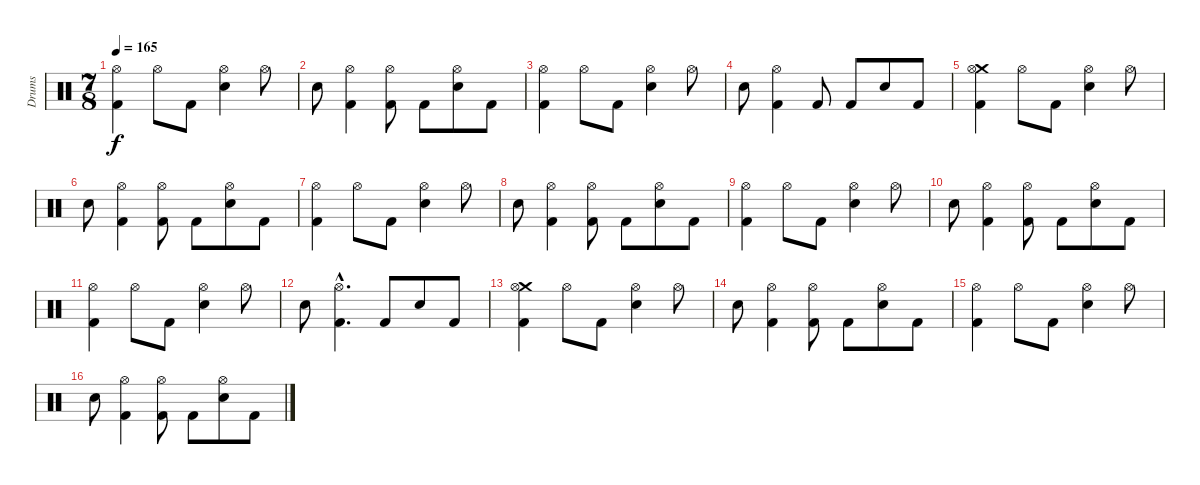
\track ("Drums" "Drums") {instrument percussion}
\staff {score}
\articulation defaults
\ts (7 8)
\tempo 165
\clef neutral
\ks c
("Hi-Hat (open)" "Kick (hit) 2").4{dy f} "Hi-Hat (open)".8 "Kick (hit) 2".8 ("Hi-Hat (open)" "Electric Snare (hit)").4 "Hi-Hat (open)".8 |
"Snare (hit) 2".8 ("Hi-Hat (open)" "Kick (hit) 2").4 ("Hi-Hat (open)" "Kick (hit) 2").8 "Kick (hit) 2".8 ("Hi-Hat (open)" "Electric Snare (hit)").8 "Kick (hit) 2".8 |
("Hi-Hat (open)" "Kick (hit) 2").4 "Hi-Hat (open)".8 "Kick (hit) 2".8 ("Hi-Hat (open)" "Electric Snare (hit)").4 "Hi-Hat (open)".8 |
"Snare (hit) 2".8 ("Hi-Hat (open)" "Kick (hit) 2").4 "Kick (hit) 2".8 "Kick (hit) 2".8 "Electric Snare (hit)".8 "Kick (hit) 2".8 |
("Crash medium (hit)" "Hi-Hat (open)" "Kick (hit) 2").4 "Hi-Hat (open)".8 "Kick (hit) 2".8 ("Hi-Hat (open)" "Electric Snare (hit)").4 "Hi-Hat (open)".8 |
"Snare (hit) 2".8 ("Hi-Hat (open)" "Kick (hit) 2").4 ("Hi-Hat (open)" "Kick (hit) 2").8 "Kick (hit) 2".8 ("Hi-Hat (open)" "Electric Snare (hit)").8 "Kick (hit) 2".8 |
("Hi-Hat (open)" "Kick (hit) 2").4 "Hi-Hat (open)".8 "Kick (hit) 2".8 ("Hi-Hat (open)" "Electric Snare (hit)").4 "Hi-Hat (open)".8 |
"Snare (hit) 2".8 ("Hi-Hat (open)" "Kick (hit) 2").4 ("Hi-Hat (open)" "Kick (hit) 2").8 "Kick (hit) 2".8 ("Hi-Hat (open)" "Electric Snare (hit)").8 "Kick (hit) 2".8 |
("Hi-Hat (open)" "Kick (hit) 2").4 "Hi-Hat (open)".8 "Kick (hit) 2".8 ("Hi-Hat (open)" "Electric Snare (hit)").4 "Hi-Hat (open)".8 |
"Snare (hit) 2".8 ("Hi-Hat (open)" "Kick (hit) 2").4 ("Hi-Hat (open)" "Kick (hit) 2").8 "Kick (hit) 2".8 ("Hi-Hat (open)" "Electric Snare (hit)").8 "Kick (hit) 2".8 |
("Hi-Hat (open)" "Kick (hit) 2").4 "Hi-Hat (open)".8 "Kick (hit) 2".8 ("Hi-Hat (open)" "Electric Snare (hit)").4 "Hi-Hat (open)".8 |
"Snare (hit) 2".8 ("Hi-Hat (open)"{hac} "Kick (hit) 2"{hac}).4{d} "Kick (hit) 2".8 "Electric Snare (hit)".8 "Kick (hit) 2".8 |
("Crash medium (hit)" "Hi-Hat (open)" "Kick (hit) 2").4 "Hi-Hat (open)".8 "Kick (hit) 2".8 ("Hi-Hat (open)" "Electric Snare (hit)").4 "Hi-Hat (open)".8 |
"Snare (hit) 2".8 ("Hi-Hat (open)" "Kick (hit) 2").4 ("Hi-Hat (open)" "Kick (hit) 2").8 "Kick (hit) 2".8 ("Hi-Hat (open)" "Electric Snare (hit)").8 "Kick (hit) 2".8 |
("Hi-Hat (open)" "Kick (hit) 2").4 "Hi-Hat (open)".8 "Kick (hit) 2".8 ("Hi-Hat (open)" "Electric Snare (hit)").4 "Hi-Hat (open)".8 |
"Snare (hit) 2".8 ("Hi-Hat (open)" "Kick (hit) 2").4 ("Hi-Hat (open)" "Kick (hit) 2").8 "Kick (hit) 2".8 ("Hi-Hat (open)" "Electric Snare (hit)").8 "Kick (hit) 2".8
